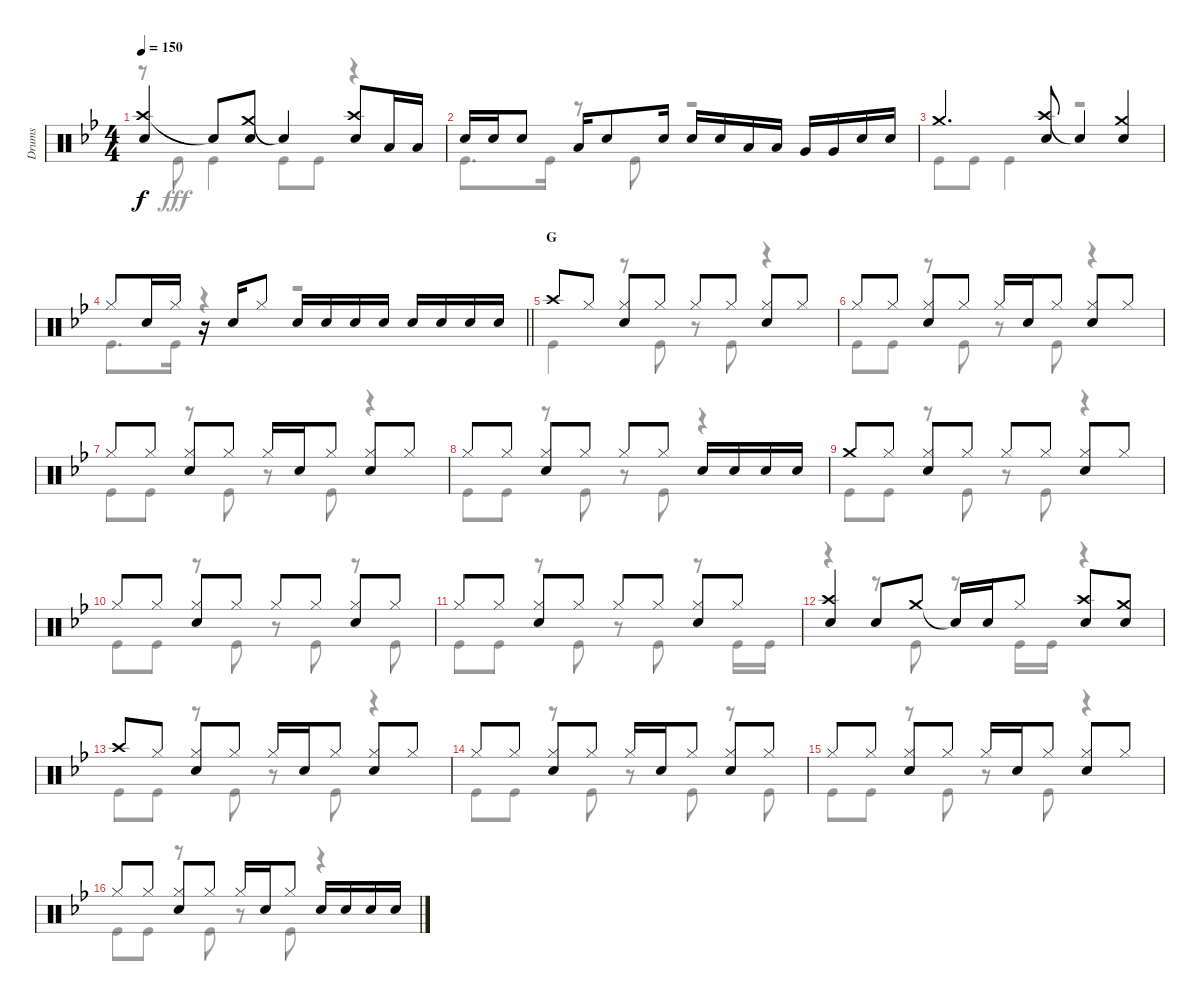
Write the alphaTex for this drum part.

\track ("Drums" "Drums") {instrument percussion}
\staff {score}
\articulation defaults
\voice
\ts (4 4)
\tempo 150
\clef neutral
\ks bb
("Crash high (hit)" "Snare (hit) 2").4{dy f} "Snare (hit)"{t}.8 ("Crash medium (hit)" "Snare (hit) 2").8 "Snare (hit)"{t}.4 ("Crash high (hit)" "Snare (hit) 2").8 "Low Tom (hit)".16 "Low Tom (hit)".16 |
"Snare (hit) 2".16 "Snare (hit) 2".16 "Snare (hit) 2".8 "Low Tom (hit)".16 "Snare (hit) 2".8 "Snare (hit) 2".16 "Snare (hit) 2".16 "Snare (hit) 2".16 "Low Tom (hit)".16 "Low Tom (hit)".16 "Very Low Tom (hit)".16 "Very Low Tom (hit)".16 "Snare (hit) 2".16 "Snare (hit) 2".16 |
"Crash medium (hit)".4{d} ("Crash high (hit)" "Snare (hit) 2").8 "Snare (hit)"{t}.4 ("Crash medium (hit)" "Snare (hit) 2").4 |
\barLineRight lightlight "Hi-Hat (closed)".8 "Snare (hit) 2".16 "Hi-Hat (closed)".16
r.16 "Snare (hit) 2".16 "Hi-Hat (closed)".8 "Snare (hit) 2".16 "Snare (hit) 2".16 "Snare (hit) 2".16 "Snare (hit) 2".16 "Snare (hit) 2".16 "Snare (hit) 2".16 "Snare (hit) 2".16 "Snare (hit) 2".16 |
\section ("" "G")
"Crash high (hit)".8 "Hi-Hat (closed)".8 ("Hi-Hat (closed)" "Snare (hit) 2").8 "Hi-Hat (closed)".8 "Hi-Hat (closed)".8 "Hi-Hat (closed)".8 ("Hi-Hat (closed)" "Snare (hit) 2").8 "Hi-Hat (closed)".8 |
"Hi-Hat (closed)".8 "Hi-Hat (closed)".8 ("Hi-Hat (closed)" "Snare (hit) 2").8 "Hi-Hat (closed)".8 "Hi-Hat (closed)".16 "Snare (hit) 2".16 "Hi-Hat (closed)".8 ("Hi-Hat (closed)" "Snare (hit) 2").8 "Hi-Hat (closed)".8 |
"Hi-Hat (closed)".8 "Hi-Hat (closed)".8 ("Hi-Hat (closed)" "Snare (hit) 2").8 "Hi-Hat (closed)".8 "Hi-Hat (closed)".16 "Snare (hit) 2".16 "Hi-Hat (closed)".8 ("Hi-Hat (closed)" "Snare (hit) 2").8 "Hi-Hat (closed)".8 |
"Hi-Hat (closed)".8 "Hi-Hat (closed)".8 ("Hi-Hat (closed)" "Snare (hit) 2").8 "Hi-Hat (closed)".8 "Hi-Hat (closed)".8 "Hi-Hat (closed)".8 "Snare (hit) 2".16 "Snare (hit) 2".16 "Snare (hit) 2".16 "Snare (hit) 2".16 |
"Crash medium (hit)".8 "Hi-Hat (closed)".8 ("Hi-Hat (closed)" "Snare (hit) 2").8 "Hi-Hat (closed)".8 "Hi-Hat (closed)".8 "Hi-Hat (closed)".8 ("Hi-Hat (closed)" "Snare (hit) 2").8 "Hi-Hat (closed)".8 |
"Hi-Hat (closed)".8 "Hi-Hat (closed)".8 ("Hi-Hat (closed)" "Snare (hit) 2").8 "Hi-Hat (closed)".8 "Hi-Hat (closed)".8 "Hi-Hat (closed)".8 ("Hi-Hat (closed)" "Snare (hit) 2").8 "Hi-Hat (closed)".8 |
"Hi-Hat (closed)".8 "Hi-Hat (closed)".8 ("Hi-Hat (closed)" "Snare (hit) 2").8 "Hi-Hat (closed)".8 "Hi-Hat (closed)".8 "Hi-Hat (closed)".8 ("Hi-Hat (closed)" "Snare (hit) 2").8 "Hi-Hat (closed)".8 |
("Crash high (hit)" "Snare (hit) 2").4 "Snare (hit) 2".8 "Crash medium (hit)".8 "Snare (hit)"{t}.16 "Snare (hit) 2".16 "Hi-Hat (closed)".8 ("Crash high (hit)" "Snare (hit) 2").8 ("Crash medium (hit)" "Snare (hit) 2").8 |
"Crash high (hit)".8 "Hi-Hat (closed)".8 ("Hi-Hat (closed)" "Snare (hit) 2").8 "Hi-Hat (closed)".8 "Hi-Hat (closed)".16 "Snare (hit) 2".16 "Hi-Hat (closed)".8 ("Hi-Hat (closed)" "Snare (hit) 2").8 "Hi-Hat (closed)".8 |
"Hi-Hat (closed)".8 "Hi-Hat (closed)".8 ("Hi-Hat (closed)" "Snare (hit) 2").8 "Hi-Hat (closed)".8 "Hi-Hat (closed)".16 "Snare (hit) 2".16 "Hi-Hat (closed)".8 ("Hi-Hat (closed)" "Snare (hit) 2").8 "Hi-Hat (closed)".8 |
"Hi-Hat (closed)".8 "Hi-Hat (closed)".8 ("Hi-Hat (closed)" "Snare (hit) 2").8 "Hi-Hat (closed)".8 "Hi-Hat (closed)".16 "Snare (hit) 2".16 "Hi-Hat (closed)".8 ("Hi-Hat (closed)" "Snare (hit) 2").8 "Hi-Hat (closed)".8 |
"Hi-Hat (closed)".8 "Hi-Hat (closed)".8 ("Hi-Hat (closed)" "Snare (hit) 2").8 "Hi-Hat (closed)".8 "Hi-Hat (closed)".16 "Snare (hit) 2".16 "Hi-Hat (closed)".8 "Snare (hit) 2".16 "Snare (hit) 2".16 "Snare (hit) 2".16 "Snare (hit) 2".16
\voice
\clef neutral
\ottava regular
\simile none
\ks bb
r.8{dy fff} "Kick (hit)".8 "Kick (hit)".4 "Kick (hit)".8 "Kick (hit)".8 r.4 |
"Kick (hit)".8{d} "Kick (hit)".16 r.8 "Kick (hit)".8 r.2 |
"Kick (hit)".8 "Kick (hit)".8 "Kick (hit)".4 r.2 |
\barLineRight lightlight "Kick (hit)".8{d} "Kick (hit)".16
r.4 r.2 |
"Kick (hit)".4 r.8 "Kick (hit)".8 r.8 "Kick (hit)".8 r.4 |
"Kick (hit)".8 "Kick (hit)".8 r.8 "Kick (hit)".8 r.8 "Kick (hit)".8 r.4 |
"Kick (hit)".8 "Kick (hit)".8 r.8 "Kick (hit)".8 r.8 "Kick (hit)".8 r.4 |
"Kick (hit)".8 "Kick (hit)".8 r.8 "Kick (hit)".8 r.8 "Kick (hit)".8 r.4 |
"Kick (hit)".8 "Kick (hit)".8 r.8 "Kick (hit)".8 r.8 "Kick (hit)".8 r.4 |
"Kick (hit)".8 "Kick (hit)".8 r.8 "Kick (hit)".8 r.8 "Kick (hit)".8 r.8 "Kick (hit)".8 |
"Kick (hit)".8 "Kick (hit)".8 r.8 "Kick (hit)".8 r.8 "Kick (hit)".8 r.8 "Kick (hit)".16 "Kick (hit)".16 |
r.4 r.8 "Kick (hit)".8 r.8 "Kick (hit)".16 "Kick (hit)".16 r.4 |
"Kick (hit)".8 "Kick (hit)".8 r.8 "Kick (hit)".8 r.8 "Kick (hit)".8 r.4 |
"Kick (hit)".8 "Kick (hit)".8 r.8 "Kick (hit)".8 r.8 "Kick (hit)".8 r.8 "Kick (hit)".8 |
"Kick (hit)".8 "Kick (hit)".8 r.8 "Kick (hit)".8 r.8 "Kick (hit)".8 r.4 |
"Kick (hit)".8 "Kick (hit)".8 r.8 "Kick (hit)".8 r.8 "Kick (hit)".8 r.4
